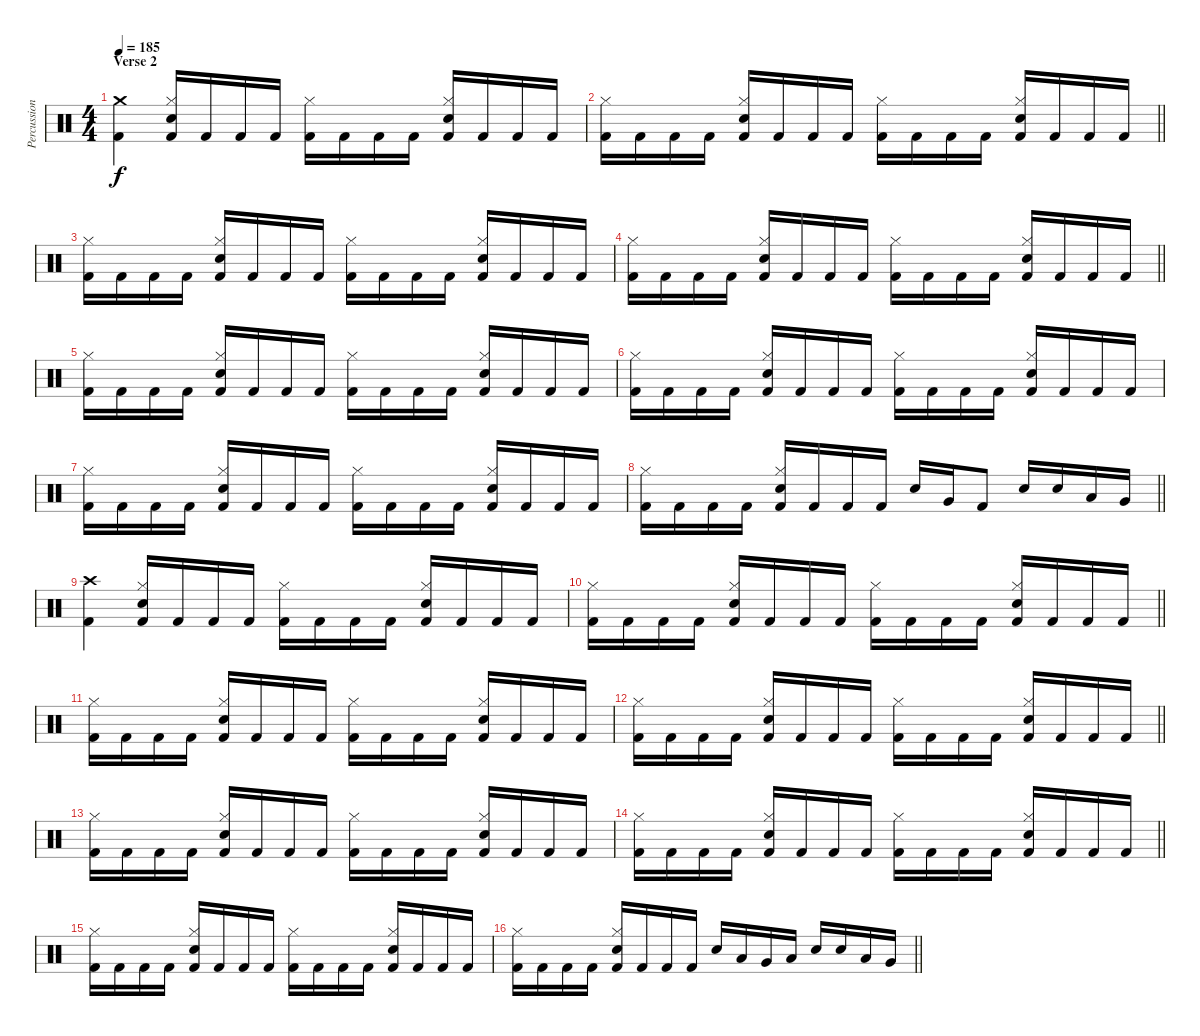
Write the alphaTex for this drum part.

\track ("Percussion" "Percussion") {instrument percussion}
\staff {score}
\articulation defaults
\ts (4 4)
\section ("" "Verse 2")
\tempo 185
\clef neutral
\ks c
("Crash medium (hit)" "Kick (hit) 2").4{dy f} ("Hi-Hat (closed)" "Snare (hit) 2" "Kick (hit) 2").16 "Kick (hit) 2".16 "Kick (hit) 2".16 "Kick (hit) 2".16 ("Hi-Hat (closed)" "Kick (hit) 2").16 "Kick (hit) 2".16 "Kick (hit) 2".16 "Kick (hit) 2".16 ("Hi-Hat (closed)" "Snare (hit) 2" "Kick (hit) 2").16 "Kick (hit) 2".16 "Kick (hit) 2".16 "Kick (hit) 2".16 |
\barLineRight lightlight
("Hi-Hat (closed)" "Kick (hit) 2").16 "Kick (hit) 2".16 "Kick (hit) 2".16 "Kick (hit) 2".16 ("Hi-Hat (closed)" "Snare (hit) 2" "Kick (hit) 2").16 "Kick (hit) 2".16 "Kick (hit) 2".16 "Kick (hit) 2".16 ("Hi-Hat (closed)" "Kick (hit) 2").16 "Kick (hit) 2".16 "Kick (hit) 2".16 "Kick (hit) 2".16 ("Hi-Hat (closed)" "Snare (hit) 2" "Kick (hit) 2").16 "Kick (hit) 2".16 "Kick (hit) 2".16 "Kick (hit) 2".16 |
("Hi-Hat (closed)" "Kick (hit) 2").16 "Kick (hit) 2".16 "Kick (hit) 2".16 "Kick (hit) 2".16 ("Hi-Hat (closed)" "Snare (hit) 2" "Kick (hit) 2").16 "Kick (hit) 2".16 "Kick (hit) 2".16 "Kick (hit) 2".16 ("Hi-Hat (closed)" "Kick (hit) 2").16 "Kick (hit) 2".16 "Kick (hit) 2".16 "Kick (hit) 2".16 ("Hi-Hat (closed)" "Snare (hit) 2" "Kick (hit) 2").16 "Kick (hit) 2".16 "Kick (hit) 2".16 "Kick (hit) 2".16 |
\barLineRight lightlight
("Hi-Hat (closed)" "Kick (hit) 2").16 "Kick (hit) 2".16 "Kick (hit) 2".16 "Kick (hit) 2".16 ("Hi-Hat (closed)" "Snare (hit) 2" "Kick (hit) 2").16 "Kick (hit) 2".16 "Kick (hit) 2".16 "Kick (hit) 2".16 ("Hi-Hat (closed)" "Kick (hit) 2").16 "Kick (hit) 2".16 "Kick (hit) 2".16 "Kick (hit) 2".16 ("Hi-Hat (closed)" "Snare (hit) 2" "Kick (hit) 2").16 "Kick (hit) 2".16 "Kick (hit) 2".16 "Kick (hit) 2".16 |
("Hi-Hat (closed)" "Kick (hit) 2").16 "Kick (hit) 2".16 "Kick (hit) 2".16 "Kick (hit) 2".16 ("Hi-Hat (closed)" "Snare (hit) 2" "Kick (hit) 2").16 "Kick (hit) 2".16 "Kick (hit) 2".16 "Kick (hit) 2".16 ("Hi-Hat (closed)" "Kick (hit) 2").16 "Kick (hit) 2".16 "Kick (hit) 2".16 "Kick (hit) 2".16 ("Hi-Hat (closed)" "Snare (hit) 2" "Kick (hit) 2").16 "Kick (hit) 2".16 "Kick (hit) 2".16 "Kick (hit) 2".16 |
("Hi-Hat (closed)" "Kick (hit) 2").16 "Kick (hit) 2".16 "Kick (hit) 2".16 "Kick (hit) 2".16 ("Hi-Hat (closed)" "Snare (hit) 2" "Kick (hit) 2").16 "Kick (hit) 2".16 "Kick (hit) 2".16 "Kick (hit) 2".16 ("Hi-Hat (closed)" "Kick (hit) 2").16 "Kick (hit) 2".16 "Kick (hit) 2".16 "Kick (hit) 2".16 ("Hi-Hat (closed)" "Snare (hit) 2" "Kick (hit) 2").16 "Kick (hit) 2".16 "Kick (hit) 2".16 "Kick (hit) 2".16 |
("Hi-Hat (closed)" "Kick (hit) 2").16 "Kick (hit) 2".16 "Kick (hit) 2".16 "Kick (hit) 2".16 ("Hi-Hat (closed)" "Snare (hit) 2" "Kick (hit) 2").16 "Kick (hit) 2".16 "Kick (hit) 2".16 "Kick (hit) 2".16 ("Hi-Hat (closed)" "Kick (hit) 2").16 "Kick (hit) 2".16 "Kick (hit) 2".16 "Kick (hit) 2".16 ("Hi-Hat (closed)" "Snare (hit) 2" "Kick (hit) 2").16 "Kick (hit) 2".16 "Kick (hit) 2".16 "Kick (hit) 2".16 |
\barLineRight lightlight
("Hi-Hat (closed)" "Kick (hit) 2").16 "Kick (hit) 2".16 "Kick (hit) 2".16 "Kick (hit) 2".16 ("Hi-Hat (closed)" "Snare (hit) 2" "Kick (hit) 2").16 "Kick (hit) 2".16 "Kick (hit) 2".16 "Kick (hit) 2".16 "Snare (hit) 2".16 "Very Low Tom (hit)".16 "Kick (hit) 2".8 "Snare (hit) 2".16 "Snare (hit) 2".16 "Low Tom (hit)".16 "Very Low Tom (hit)".16 |
("Crash high (hit)" "Kick (hit) 2").4 ("Hi-Hat (closed)" "Snare (hit) 2" "Kick (hit) 2").16 "Kick (hit) 2".16 "Kick (hit) 2".16 "Kick (hit) 2".16 ("Hi-Hat (closed)" "Kick (hit) 2").16 "Kick (hit) 2".16 "Kick (hit) 2".16 "Kick (hit) 2".16 ("Hi-Hat (closed)" "Snare (hit) 2" "Kick (hit) 2").16 "Kick (hit) 2".16 "Kick (hit) 2".16 "Kick (hit) 2".16 |
\barLineRight lightlight
("Hi-Hat (closed)" "Kick (hit) 2").16 "Kick (hit) 2".16 "Kick (hit) 2".16 "Kick (hit) 2".16 ("Hi-Hat (closed)" "Snare (hit) 2" "Kick (hit) 2").16 "Kick (hit) 2".16 "Kick (hit) 2".16 "Kick (hit) 2".16 ("Hi-Hat (closed)" "Kick (hit) 2").16 "Kick (hit) 2".16 "Kick (hit) 2".16 "Kick (hit) 2".16 ("Hi-Hat (closed)" "Snare (hit) 2" "Kick (hit) 2").16 "Kick (hit) 2".16 "Kick (hit) 2".16 "Kick (hit) 2".16 |
("Hi-Hat (closed)" "Kick (hit) 2").16 "Kick (hit) 2".16 "Kick (hit) 2".16 "Kick (hit) 2".16 ("Hi-Hat (closed)" "Snare (hit) 2" "Kick (hit) 2").16 "Kick (hit) 2".16 "Kick (hit) 2".16 "Kick (hit) 2".16 ("Hi-Hat (closed)" "Kick (hit) 2").16 "Kick (hit) 2".16 "Kick (hit) 2".16 "Kick (hit) 2".16 ("Hi-Hat (closed)" "Snare (hit) 2" "Kick (hit) 2").16 "Kick (hit) 2".16 "Kick (hit) 2".16 "Kick (hit) 2".16 |
\barLineRight lightlight
("Hi-Hat (closed)" "Kick (hit) 2").16 "Kick (hit) 2".16 "Kick (hit) 2".16 "Kick (hit) 2".16 ("Hi-Hat (closed)" "Snare (hit) 2" "Kick (hit) 2").16 "Kick (hit) 2".16 "Kick (hit) 2".16 "Kick (hit) 2".16 ("Hi-Hat (closed)" "Kick (hit) 2").16 "Kick (hit) 2".16 "Kick (hit) 2".16 "Kick (hit) 2".16 ("Hi-Hat (closed)" "Snare (hit) 2" "Kick (hit) 2").16 "Kick (hit) 2".16 "Kick (hit) 2".16 "Kick (hit) 2".16 |
("Hi-Hat (closed)" "Kick (hit) 2").16 "Kick (hit) 2".16 "Kick (hit) 2".16 "Kick (hit) 2".16 ("Hi-Hat (closed)" "Snare (hit) 2" "Kick (hit) 2").16 "Kick (hit) 2".16 "Kick (hit) 2".16 "Kick (hit) 2".16 ("Hi-Hat (closed)" "Kick (hit) 2").16 "Kick (hit) 2".16 "Kick (hit) 2".16 "Kick (hit) 2".16 ("Hi-Hat (closed)" "Snare (hit) 2" "Kick (hit) 2").16 "Kick (hit) 2".16 "Kick (hit) 2".16 "Kick (hit) 2".16 |
\barLineRight lightlight
("Hi-Hat (closed)" "Kick (hit) 2").16 "Kick (hit) 2".16 "Kick (hit) 2".16 "Kick (hit) 2".16 ("Hi-Hat (closed)" "Snare (hit) 2" "Kick (hit) 2").16 "Kick (hit) 2".16 "Kick (hit) 2".16 "Kick (hit) 2".16 ("Hi-Hat (closed)" "Kick (hit) 2").16 "Kick (hit) 2".16 "Kick (hit) 2".16 "Kick (hit) 2".16 ("Hi-Hat (closed)" "Snare (hit) 2" "Kick (hit) 2").16 "Kick (hit) 2".16 "Kick (hit) 2".16 "Kick (hit) 2".16 |
("Hi-Hat (closed)" "Kick (hit) 2").16 "Kick (hit) 2".16 "Kick (hit) 2".16 "Kick (hit) 2".16 ("Hi-Hat (closed)" "Snare (hit) 2" "Kick (hit) 2").16 "Kick (hit) 2".16 "Kick (hit) 2".16 "Kick (hit) 2".16 ("Hi-Hat (closed)" "Kick (hit) 2").16 "Kick (hit) 2".16 "Kick (hit) 2".16 "Kick (hit) 2".16 ("Hi-Hat (closed)" "Snare (hit) 2" "Kick (hit) 2").16 "Kick (hit) 2".16 "Kick (hit) 2".16 "Kick (hit) 2".16 |
\barLineRight lightlight
("Hi-Hat (closed)" "Kick (hit) 2").16 "Kick (hit) 2".16 "Kick (hit) 2".16 "Kick (hit) 2".16 ("Hi-Hat (closed)" "Snare (hit) 2" "Kick (hit) 2").16 "Kick (hit) 2".16 "Kick (hit) 2".16 "Kick (hit) 2".16 "Snare (hit) 2".16 "Low Tom (hit)".16 "Very Low Tom (hit)".16 "Low Floor Tom (hit)".16 "Snare (hit) 2".16 "Snare (hit) 2".16 "Low Tom (hit)".16 "Very Low Tom (hit)".16
